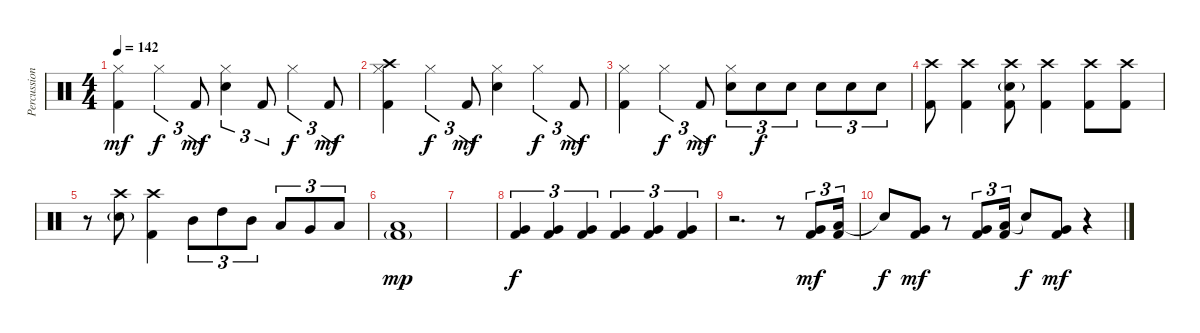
\track ("Percussion" "Percussion") {instrument percussion}
\staff {score}
\articulation defaults
\ts (4 4)
\tempo 142
\clef neutral
\ks c
("Hi-Hat (closed)" "Kick (hit) 2").4{dy mf} "Hi-Hat (closed)".4{tu (3 2) dy f} "Kick (hit) 2".8{tu (3 2) dy mf} ("Hi-Hat (closed)" "Electric Snare (hit)").4{tu (3 2)} "Kick (hit) 2".8{tu (3 2)} "Hi-Hat (closed)".4{tu (3 2) dy f} "Kick (hit) 2".8{tu (3 2) dy mf} |
("Crash high (hit)" "Hi-Hat (closed)" "Kick (hit) 2").4 "Hi-Hat (closed)".4{tu (3 2) dy f} "Kick (hit) 2".8{tu (3 2) dy mf} ("Hi-Hat (closed)" "Electric Snare (hit)").4 "Hi-Hat (closed)".4{tu (3 2) dy f} "Kick (hit) 2".8{tu (3 2) dy mf} |
("Hi-Hat (closed)" "Kick (hit) 2").4 "Hi-Hat (closed)".4{tu (3 2) dy f} "Kick (hit) 2".8{tu (3 2) dy mf} ("Hi-Hat (closed)" "Electric Snare (hit)").8{tu (3 2)} "Electric Snare (hit)".8{tu (3 2) dy f} "Electric Snare (hit)".8{tu (3 2)} "Electric Snare (hit)".8{tu (3 2)} "Electric Snare (hit)".8{tu (3 2)} "Electric Snare (hit)".8{tu (3 2)} |
("Crash high (hit)" "Kick (hit) 2").8 ("Crash high (hit)" "Kick (hit) 2").4 ("Crash high (hit)" "Electric Snare (hit)"{g} "Kick (hit) 2").8 ("Crash high (hit)" "Kick (hit) 2").4 ("Crash high (hit)" "Kick (hit) 2").8 ("Crash high (hit)" "Kick (hit) 2").8 |
r.8 ("Crash high (hit)" "Electric Snare (hit)"{g}).8 ("Crash high (hit)" "Kick (hit) 2").4 "Mid Tom (hit)".8{tu (3 2)} "High Tom (hit)".8{tu (3 2)} "Mid Tom (hit)".8{tu (3 2)} "Low Tom (hit)".8{tu (3 2)} "Very Low Tom (hit)".8{tu (3 2)} "Low Floor Tom (hit)".8{tu (3 2)} |
("Low Floor Tom (hit)" "Kick (hit) 2"{g}).1{dy mp} |
|
("Very Low Tom (hit)" "Kick (hit) 2").4{tu (3 2) dy f} ("Very Low Tom (hit)" "Kick (hit) 2").4{tu (3 2)} ("Very Low Tom (hit)" "Kick (hit) 2").4{tu (3 2)} ("Very Low Tom (hit)" "Kick (hit) 2").4{tu (3 2)} ("Very Low Tom (hit)" "Kick (hit) 2").4{tu (3 2)} ("Very Low Tom (hit)" "Kick (hit) 2").4{tu (3 2)} |
r.2{d} r.8 ("Very Low Tom (hit)" "Kick (hit) 2").8{tu (3 2) dy mf} ("Low Tom (hit)" "Kick (hit) 2").16{tu (3 2)} |
"Snare (hit)"{t}.8{dy f} ("Very Low Tom (hit)" "Kick (hit) 2").8{dy mf} r.8 ("Very Low Tom (hit)" "Kick (hit) 2").8{tu (3 2)} ("Low Tom (hit)" "Kick (hit) 2").16{tu (3 2)} "Snare (hit)"{t}.8{dy f} ("Very Low Tom (hit)" "Kick (hit) 2").8{dy mf} r.4
